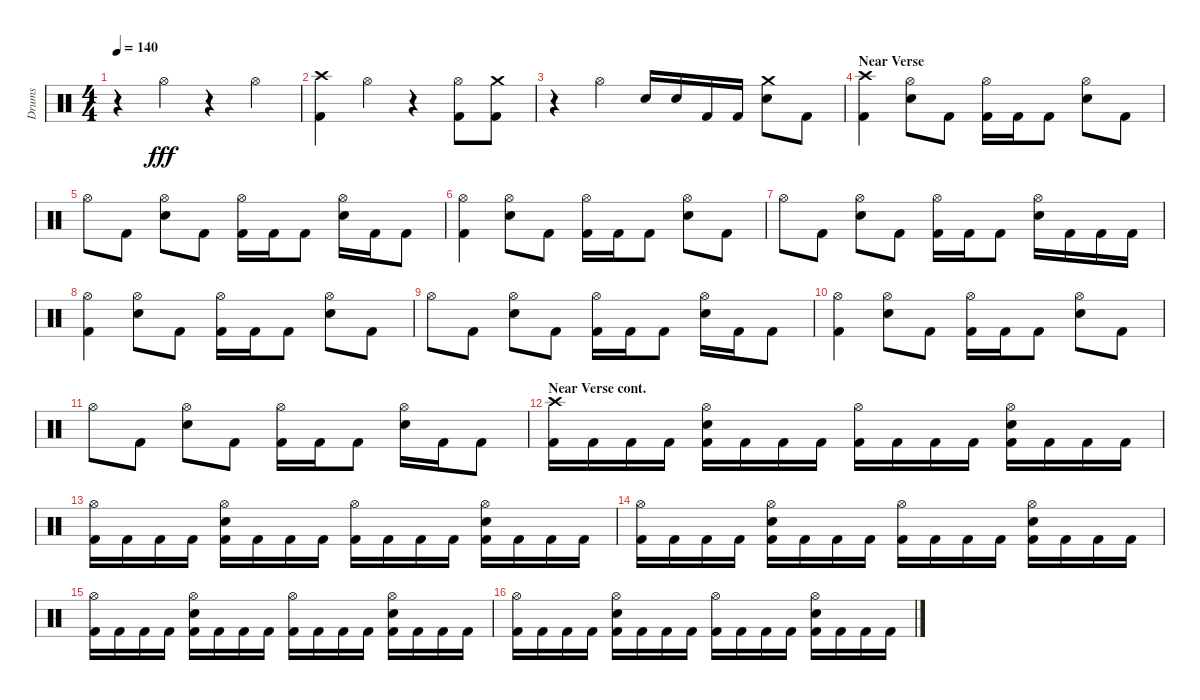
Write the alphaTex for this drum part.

\track ("Drums" "Drums") {instrument percussion}
\staff {score}
\articulation defaults
\ts (4 4)
\tempo 140
\clef neutral
\ks aminor
r.4{dy fff} "Hi-Hat (open)".4 r.4 "Hi-Hat (open)".4 |
("Kick (hit) 2" "Crash high (hit)").4 "Hi-Hat (open)".4 r.4 ("Hi-Hat (open)" "Kick (hit) 2").8 ("Kick (hit) 2" "Crash medium (hit)").8 |
r.4 "Hi-Hat (open)".4 "Snare (hit) 2".16 "Snare (hit) 2".16 "Kick (hit) 2".16 "Kick (hit) 2".16 ("Snare (hit) 2" "Crash medium (hit)").8 "Kick (hit) 2".8 |
\section ("" "Near Verse")
("Crash high (hit)" "Kick (hit) 2").4 ("Hi-Hat (open)" "Snare (hit) 2").8 "Kick (hit) 2".8 ("Hi-Hat (open)" "Kick (hit) 2").16 "Kick (hit) 2".16 "Kick (hit) 2".8 ("Hi-Hat (open)" "Snare (hit) 2").8 "Kick (hit) 2".8 |
"Hi-Hat (open)".8 "Kick (hit) 2".8 ("Hi-Hat (open)" "Snare (hit) 2").8 "Kick (hit) 2".8 ("Kick (hit) 2" "Hi-Hat (open)").16 "Kick (hit) 2".16 "Kick (hit) 2".8 ("Hi-Hat (open)" "Snare (hit) 2").16 "Kick (hit) 2".16 "Kick (hit) 2".8 |
("Hi-Hat (open)" "Kick (hit) 2").4 ("Hi-Hat (open)" "Snare (hit) 2").8 "Kick (hit) 2".8 ("Hi-Hat (open)" "Kick (hit) 2").16 "Kick (hit) 2".16 "Kick (hit) 2".8 ("Snare (hit) 2" "Hi-Hat (open)").8 "Kick (hit) 2".8 |
"Hi-Hat (open)".8 "Kick (hit) 2".8 ("Snare (hit) 2" "Hi-Hat (open)").8 "Kick (hit) 2".8 ("Kick (hit) 2" "Hi-Hat (open)").16 "Kick (hit) 2".16 "Kick (hit) 2".8 ("Hi-Hat (open)" "Snare (hit) 2").16 "Kick (hit) 2".16 "Kick (hit) 2".16 "Kick (hit) 2".16 |
("Hi-Hat (open)" "Kick (hit) 2").4 ("Hi-Hat (open)" "Snare (hit) 2").8 "Kick (hit) 2".8 ("Hi-Hat (open)" "Kick (hit) 2").16 "Kick (hit) 2".16 "Kick (hit) 2".8 ("Hi-Hat (open)" "Snare (hit) 2").8 "Kick (hit) 2".8 |
"Hi-Hat (open)".8 "Kick (hit) 2".8 ("Hi-Hat (open)" "Snare (hit) 2").8 "Kick (hit) 2".8 ("Hi-Hat (open)" "Kick (hit) 2").16 "Kick (hit) 2".16 "Kick (hit) 2".8 ("Hi-Hat (open)" "Snare (hit) 2").16 "Kick (hit) 2".16 "Kick (hit) 2".8 |
("Hi-Hat (open)" "Kick (hit) 2").4 ("Hi-Hat (open)" "Snare (hit) 2").8 "Kick (hit) 2".8 ("Kick (hit) 2" "Hi-Hat (open)").16 "Kick (hit) 2".16 "Kick (hit) 2".8 ("Snare (hit) 2" "Hi-Hat (open)").8 "Kick (hit) 2".8 |
"Hi-Hat (open)".8 "Kick (hit) 2".8 ("Snare (hit) 2" "Hi-Hat (open)").8 "Kick (hit) 2".8 ("Hi-Hat (open)" "Kick (hit) 2").16 "Kick (hit) 2".16 "Kick (hit) 2".8 ("Snare (hit) 2" "Hi-Hat (open)").16 "Kick (hit) 2".16 "Kick (hit) 2".8 |
\section ("" "Near Verse cont.")
("Crash high (hit)" "Kick (hit) 2").16 "Kick (hit) 2".16 "Kick (hit) 2".16 "Kick (hit) 2".16 ("Hi-Hat (open)" "Snare (hit) 2" "Kick (hit) 2").16 "Kick (hit) 2".16 "Kick (hit) 2".16 "Kick (hit) 2".16 ("Hi-Hat (open)" "Kick (hit) 2").16 "Kick (hit) 2".16 "Kick (hit) 2".16 "Kick (hit) 2".16 ("Kick (hit) 2" "Hi-Hat (open)" "Snare (hit) 2").16 "Kick (hit) 2".16 "Kick (hit) 2".16 "Kick (hit) 2".16 |
("Kick (hit) 2" "Hi-Hat (open)").16 "Kick (hit) 2".16 "Kick (hit) 2".16 "Kick (hit) 2".16 ("Snare (hit) 2" "Hi-Hat (open)" "Kick (hit) 2").16 "Kick (hit) 2".16 "Kick (hit) 2".16 "Kick (hit) 2".16 ("Hi-Hat (open)" "Kick (hit) 2").16 "Kick (hit) 2".16 "Kick (hit) 2".16 "Kick (hit) 2".16 ("Snare (hit) 2" "Hi-Hat (open)" "Kick (hit) 2").16 "Kick (hit) 2".16 "Kick (hit) 2".16 "Kick (hit) 2".16 |
("Hi-Hat (open)" "Kick (hit) 2").16 "Kick (hit) 2".16 "Kick (hit) 2".16 "Kick (hit) 2".16 ("Snare (hit) 2" "Kick (hit) 2" "Hi-Hat (open)").16 "Kick (hit) 2".16 "Kick (hit) 2".16 "Kick (hit) 2".16 ("Kick (hit) 2" "Hi-Hat (open)").16 "Kick (hit) 2".16 "Kick (hit) 2".16 "Kick (hit) 2".16 ("Snare (hit) 2" "Kick (hit) 2" "Hi-Hat (open)").16 "Kick (hit) 2".16 "Kick (hit) 2".16 "Kick (hit) 2".16 |
("Hi-Hat (open)" "Kick (hit) 2").16 "Kick (hit) 2".16 "Kick (hit) 2".16 "Kick (hit) 2".16 ("Kick (hit) 2" "Snare (hit) 2" "Hi-Hat (open)").16 "Kick (hit) 2".16 "Kick (hit) 2".16 "Kick (hit) 2".16 ("Hi-Hat (open)" "Kick (hit) 2").16 "Kick (hit) 2".16 "Kick (hit) 2".16 "Kick (hit) 2".16 ("Kick (hit) 2" "Hi-Hat (open)" "Snare (hit) 2").16 "Kick (hit) 2".16 "Kick (hit) 2".16 "Kick (hit) 2".16 |
("Kick (hit) 2" "Hi-Hat (open)").16 "Kick (hit) 2".16 "Kick (hit) 2".16 "Kick (hit) 2".16 ("Hi-Hat (open)" "Snare (hit) 2" "Kick (hit) 2").16 "Kick (hit) 2".16 "Kick (hit) 2".16 "Kick (hit) 2".16 ("Hi-Hat (open)" "Kick (hit) 2").16 "Kick (hit) 2".16 "Kick (hit) 2".16 "Kick (hit) 2".16 ("Kick (hit) 2" "Hi-Hat (open)" "Snare (hit) 2").16 "Kick (hit) 2".16 "Kick (hit) 2".16 "Kick (hit) 2".16
